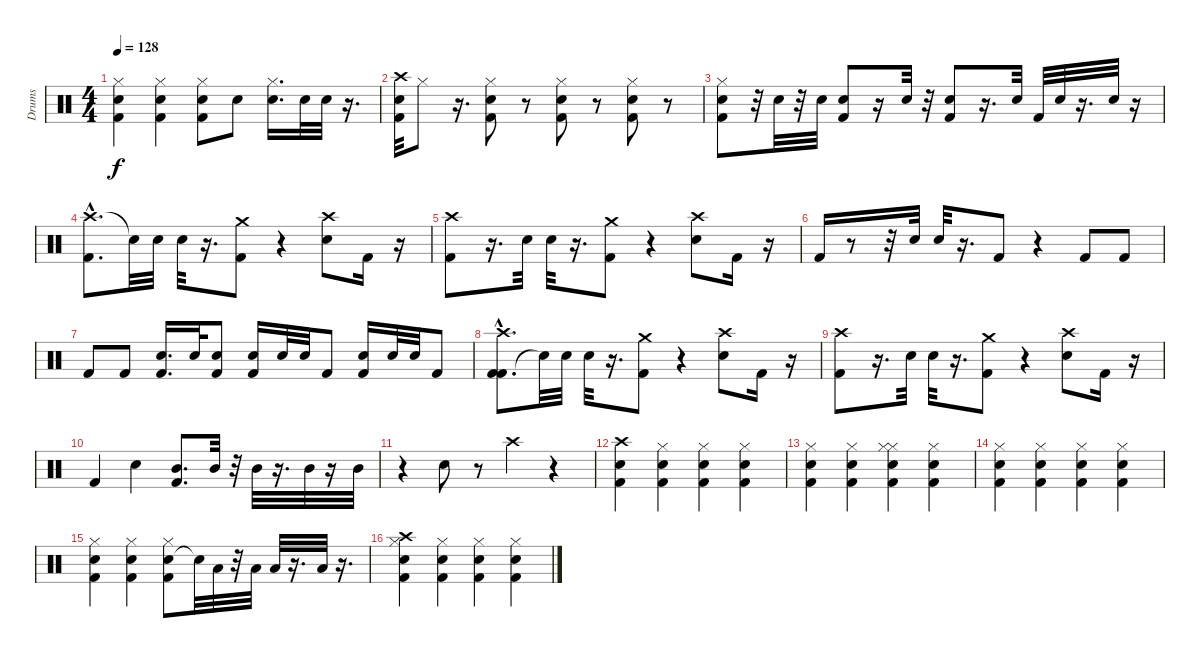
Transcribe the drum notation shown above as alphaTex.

\track ("Drums" "Drums") {instrument percussion}
\staff {score}
\articulation defaults
\ts (4 4)
\tempo 128
\clef neutral
\ks c
("Snare (hit) 2" "Kick (hit) 2" "Hi-Hat (closed)").4{dy f} ("Kick (hit) 2" "Snare (hit) 2" "Hi-Hat (closed)").4 ("Snare (hit) 2" "Hi-Hat (closed)" "Kick (hit) 2").8 "Snare (hit) 2".8 ("Hi-Hat (closed)" "Snare (hit) 2").16{d} "Snare (hit) 2".32 "Snare (hit) 2".32 r.16{d} |
("Kick (hit) 2" "Snare (hit) 2" "Crash high (hit)").32 "Hi-Hat (closed)".8 r.16{d} ("Snare (hit) 2" "Hi-Hat (closed)" "Kick (hit) 2").8 r.8 ("Kick (hit) 2" "Hi-Hat (closed)" "Snare (hit) 2").8 r.8 ("Hi-Hat (closed)" "Kick (hit) 2" "Snare (hit) 2").8 r.8 |
("Snare (hit) 2" "Hi-Hat (closed)" "Kick (hit) 2").8 r.32 "Snare (hit) 2".32 r.32 "Snare (hit) 2".32 ("Kick (hit) 2" "Snare (hit) 2").8 r.16 "Snare (hit) 2".32 r.32 ("Snare (hit) 2" "Kick (hit) 2").8 r.16{d} "Snare (hit) 2".32 "Kick (hit) 2".32 "Snare (hit) 2".32 r.16{d} "Snare (hit) 2".32 r.16 |
("Crash high (hit)"{hac} "Kick (hit) 2").8{d} "Snare (hit)"{t}.32 "Snare (hit) 2".32 "Snare (hit) 2".32 r.16{d} ("Kick (hit) 2" "Crash medium (hit)").8 r.4 ("Crash high (hit)" "Snare (hit) 2").8 "Kick (hit) 2".16 r.16 |
("Crash high (hit)" "Kick (hit) 2").8 r.16{d} "Snare (hit) 2".32 "Snare (hit) 2".32 r.16{d} ("Kick (hit) 2" "Crash medium (hit)").8 r.4 ("Crash high (hit)" "Snare (hit) 2").8 "Kick (hit) 2".16 r.16 |
"Kick (hit) 2".16 r.8 r.32 "Snare (hit) 2".32 "Snare (hit) 2".32 r.16{d} "Kick (hit) 2".8 r.4 "Kick (hit) 2".8 "Kick (hit) 2".8 |
"Kick (hit) 2".8 "Kick (hit) 2".8 ("Kick (hit) 2" "Snare (hit) 2").16{d} "Snare (hit) 2".32 ("Snare (hit) 2" "Kick (hit) 2").8 ("Snare (hit) 2" "Kick (hit) 2").16 "Snare (hit) 2".32 "Snare (hit) 2".32 "Kick (hit) 2".8 ("Kick (hit) 2" "Snare (hit) 2").16 "Snare (hit) 2".32 "Snare (hit) 2".32 "Kick (hit) 2".8 |
("Kick (hit) 2" "Crash high (hit)"{hac} "Kick (hit) 2").8{d} "Snare (hit)"{t}.32 "Snare (hit) 2".32 "Snare (hit) 2".32 r.16{d} ("Kick (hit) 2" "Crash medium (hit)").8 r.4 ("Snare (hit) 2" "Crash high (hit)").8 "Kick (hit) 2".16 r.16 |
("Crash high (hit)" "Kick (hit) 2").8 r.16{d} "Snare (hit) 2".32 "Snare (hit) 2".32 r.16{d} ("Crash medium (hit)" "Kick (hit) 2").8 r.4 ("Snare (hit) 2" "Crash high (hit)").8 "Kick (hit) 2".16 r.16 |
"Kick (hit) 2".4 "Snare (hit) 2".4 ("Kick (hit) 2" "Mid Tom (hit)").8{d} "Mid Tom (hit)".32 r.32 "Mid Tom (hit)".32 r.16{d} "Mid Tom (hit)".32 r.16 "Mid Tom (hit)".32 |
r.4 "Snare (hit) 2".8 r.8 "Crash high (hit)".4 r.4 |
("Snare (hit) 2" "Kick (hit) 2" "Crash high (hit)").4 ("Kick (hit) 2" "Snare (hit) 2" "Hi-Hat (closed)").4 ("Kick (hit) 2" "Snare (hit) 2" "Hi-Hat (closed)").4 ("Kick (hit) 2" "Snare (hit) 2" "Hi-Hat (closed)").4 |
("Kick (hit) 2" "Snare (hit) 2" "Hi-Hat (closed)").4 ("Kick (hit) 2" "Snare (hit) 2" "Hi-Hat (closed)").4 ("Hi-Hat (closed)" "Snare (hit) 2" "Kick (hit) 2" "Hi-Hat (closed)").4 ("Hi-Hat (closed)" "Snare (hit) 2" "Kick (hit) 2").4 |
("Snare (hit) 2" "Kick (hit) 2" "Hi-Hat (closed)").4 ("Hi-Hat (closed)" "Kick (hit) 2" "Snare (hit) 2").4 ("Hi-Hat (closed)" "Snare (hit) 2" "Kick (hit) 2").4 ("Hi-Hat (closed)" "Kick (hit) 2" "Snare (hit) 2").4 |
("Kick (hit) 2" "Snare (hit) 2" "Hi-Hat (closed)").4 ("Hi-Hat (closed)" "Kick (hit) 2" "Snare (hit) 2").4 ("Snare (hit) 2" "Kick (hit) 2" "Hi-Hat (closed)").8 "Snare (hit)"{t}.32 "Low Tom (hit)".32 r.32 "Low Tom (hit)".32 "Low Tom (hit)".32 r.16{d} "Low Tom (hit)".32 r.16{d} |
("Kick (hit) 2" "Snare (hit) 2" "Crash high (hit)" "Hi-Hat (closed)").4 ("Kick (hit) 2" "Snare (hit) 2" "Hi-Hat (closed)").4 ("Snare (hit) 2" "Kick (hit) 2" "Hi-Hat (closed)").4 ("Snare (hit) 2" "Kick (hit) 2" "Hi-Hat (closed)").4
